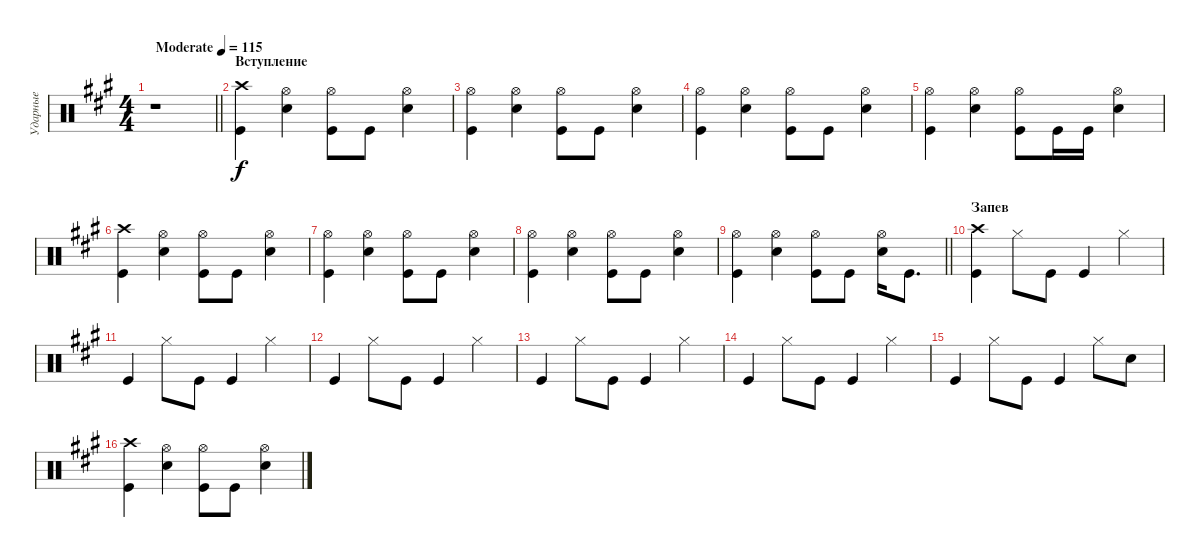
\track ("Ударные" "Ударные") {instrument percussion}
\staff {score}
\articulation defaults
\ts (4 4)
\tempo (115 "Moderate")
\clef neutral
\barLineRight lightlight
\ks a
r.1{dy f} |
\section ("" "Вступление")
("Crash high (hit)" "Kick (hit)").4 ("Hi-Hat (open)" "Snare (hit) 2").4 ("Hi-Hat (open)" "Kick (hit)").8 "Kick (hit)".8 ("Hi-Hat (open)" "Snare (hit) 2").4 |
("Hi-Hat (open)" "Kick (hit)").4 ("Hi-Hat (open)" "Snare (hit) 2").4 ("Hi-Hat (open)" "Kick (hit)").8 "Kick (hit)".8 ("Hi-Hat (open)" "Snare (hit) 2").4 |
("Hi-Hat (open)" "Kick (hit)").4 ("Hi-Hat (open)" "Snare (hit) 2").4 ("Hi-Hat (open)" "Kick (hit)").8 "Kick (hit)".8 ("Hi-Hat (open)" "Snare (hit) 2").4 |
("Hi-Hat (open)" "Kick (hit)").4 ("Hi-Hat (open)" "Snare (hit) 2").4 ("Hi-Hat (open)" "Kick (hit)").8 "Kick (hit)".16 "Kick (hit)".16 ("Hi-Hat (open)" "Snare (hit) 2").4 |
("Crash high (hit)" "Kick (hit)").4 ("Hi-Hat (open)" "Snare (hit) 2").4 ("Hi-Hat (open)" "Kick (hit)").8 "Kick (hit)".8 ("Hi-Hat (open)" "Snare (hit) 2").4 |
("Hi-Hat (open)" "Kick (hit)").4 ("Hi-Hat (open)" "Snare (hit) 2").4 ("Hi-Hat (open)" "Kick (hit)").8 "Kick (hit)".8 ("Hi-Hat (open)" "Snare (hit) 2").4 |
("Hi-Hat (open)" "Kick (hit)").4 ("Hi-Hat (open)" "Snare (hit) 2").4 ("Hi-Hat (open)" "Kick (hit)").8 "Kick (hit)".8 ("Hi-Hat (open)" "Snare (hit) 2").4 |
\barLineRight lightlight
("Hi-Hat (open)" "Kick (hit)").4 ("Hi-Hat (open)" "Snare (hit) 2").4 ("Hi-Hat (open)" "Kick (hit)").8 "Kick (hit)".8 ("Hi-Hat (open)" "Snare (hit) 2").16 "Kick (hit)".8{d} |
\section ("" "Запев")
("Kick (hit)" "Crash high (hit)").4 "Hi-Hat (closed)".8 "Kick (hit)".8 "Kick (hit)".4 "Hi-Hat (closed)".4 |
"Kick (hit)".4 "Hi-Hat (closed)".8 "Kick (hit)".8 "Kick (hit)".4 "Hi-Hat (closed)".4 |
"Kick (hit)".4 "Hi-Hat (closed)".8 "Kick (hit)".8 "Kick (hit)".4 "Hi-Hat (closed)".4 |
"Kick (hit)".4 "Hi-Hat (closed)".8 "Kick (hit)".8 "Kick (hit)".4 "Hi-Hat (closed)".4 |
"Kick (hit)".4 "Hi-Hat (closed)".8 "Kick (hit)".8 "Kick (hit)".4 "Hi-Hat (closed)".4 |
"Kick (hit)".4 "Hi-Hat (closed)".8 "Kick (hit)".8 "Kick (hit)".4 "Hi-Hat (closed)".8 "Snare (hit) 2".8 |
("Crash high (hit)" "Kick (hit)").4 ("Hi-Hat (open)" "Snare (hit) 2").4 ("Hi-Hat (open)" "Kick (hit)").8 "Kick (hit)".8 ("Hi-Hat (open)" "Snare (hit) 2").4
